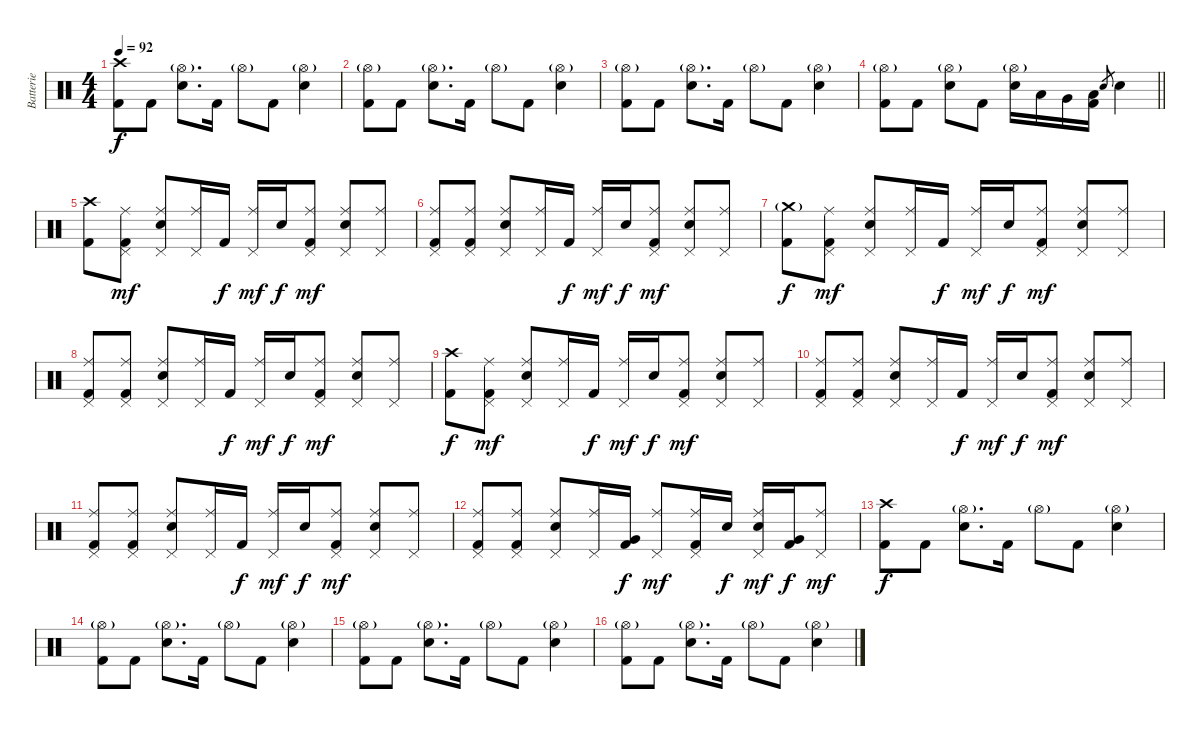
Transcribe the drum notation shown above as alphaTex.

\track ("Batterie" "Batterie") {instrument percussion}
\staff {score}
\articulation defaults
\ts (4 4)
\tempo 92
\clef neutral
\ks c
("Crash high (hit)" "Kick (hit) 2").8{dy f} "Kick (hit) 2".8 ("Hi-Hat (open)"{g} "Electric Snare (hit)").8{d} "Kick (hit) 2".16 "Hi-Hat (open)"{g}.8 "Kick (hit) 2".8 ("Hi-Hat (open)"{g} "Electric Snare (hit)").4 |
("Hi-Hat (open)"{g} "Kick (hit) 2").8 "Kick (hit) 2".8 ("Hi-Hat (open)"{g} "Electric Snare (hit)").8{d} "Kick (hit) 2".16 "Hi-Hat (open)"{g}.8 "Kick (hit) 2".8 ("Hi-Hat (open)"{g} "Electric Snare (hit)").4 |
("Hi-Hat (open)"{g} "Kick (hit) 2").8 "Kick (hit) 2".8 ("Hi-Hat (open)"{g} "Electric Snare (hit)").8{d} "Kick (hit) 2".16 "Hi-Hat (open)"{g}.8 "Kick (hit) 2".8 ("Hi-Hat (open)"{g} "Electric Snare (hit)").4 |
\barLineRight lightlight
("Hi-Hat (open)"{g} "Kick (hit) 2").8 "Kick (hit) 2".8 ("Hi-Hat (open)"{g} "Electric Snare (hit)").8 "Kick (hit) 2".8 ("Hi-Hat (open)"{g} "Electric Snare (hit)").16 "Low Tom (hit)".16 "Very Low Tom (hit)".16 ("Low Floor Tom (hit)" "Kick (hit) 2").16 "Electric Snare (hit)".8{gr} "Electric Snare (hit)".4 |
("Crash high (hit)" "Kick (hit) 2").8 ("Ride (middle)" "Pedal Hi-Hat (hit)" "Kick (hit) 2").8{dy mf} ("Ride (middle)" "Pedal Hi-Hat (hit)" "Electric Snare (hit)").8 ("Ride (middle)" "Pedal Hi-Hat (hit)").16 "Kick (hit) 2".16{dy f} ("Ride (middle)" "Pedal Hi-Hat (hit)").16{dy mf} "Electric Snare (hit)".16{dy f} ("Ride (middle)" "Pedal Hi-Hat (hit)" "Kick (hit) 2").8{dy mf} ("Ride (middle)" "Pedal Hi-Hat (hit)" "Electric Snare (hit)").8 ("Ride (middle)" "Pedal Hi-Hat (hit)").8 |
("Ride (middle)" "Pedal Hi-Hat (hit)" "Kick (hit) 2").8 ("Ride (middle)" "Pedal Hi-Hat (hit)" "Kick (hit) 2").8 ("Ride (middle)" "Pedal Hi-Hat (hit)" "Electric Snare (hit)").8 ("Ride (middle)" "Pedal Hi-Hat (hit)").16 "Kick (hit) 2".16{dy f} ("Ride (middle)" "Pedal Hi-Hat (hit)").16{dy mf} "Electric Snare (hit)".16{dy f} ("Ride (middle)" "Pedal Hi-Hat (hit)" "Kick (hit) 2").8{dy mf} ("Ride (middle)" "Pedal Hi-Hat (hit)" "Electric Snare (hit)").8 ("Ride (middle)" "Pedal Hi-Hat (hit)").8 |
("Crash medium (hit)"{g} "Kick (hit) 2").8{dy f} ("Ride (middle)" "Pedal Hi-Hat (hit)" "Kick (hit) 2").8{dy mf} ("Ride (middle)" "Pedal Hi-Hat (hit)" "Electric Snare (hit)").8 ("Ride (middle)" "Pedal Hi-Hat (hit)").16 "Kick (hit) 2".16{dy f} ("Ride (middle)" "Pedal Hi-Hat (hit)").16{dy mf} "Electric Snare (hit)".16{dy f} ("Ride (middle)" "Pedal Hi-Hat (hit)" "Kick (hit) 2").8{dy mf} ("Ride (middle)" "Pedal Hi-Hat (hit)" "Electric Snare (hit)").8 ("Ride (middle)" "Pedal Hi-Hat (hit)").8 |
("Ride (middle)" "Pedal Hi-Hat (hit)" "Kick (hit) 2").8 ("Ride (middle)" "Pedal Hi-Hat (hit)" "Kick (hit) 2").8 ("Ride (middle)" "Pedal Hi-Hat (hit)" "Electric Snare (hit)").8 ("Ride (middle)" "Pedal Hi-Hat (hit)").16 "Kick (hit) 2".16{dy f} ("Ride (middle)" "Pedal Hi-Hat (hit)").16{dy mf} "Electric Snare (hit)".16{dy f} ("Ride (middle)" "Pedal Hi-Hat (hit)" "Kick (hit) 2").8{dy mf} ("Ride (middle)" "Pedal Hi-Hat (hit)" "Electric Snare (hit)").8 ("Ride (middle)" "Pedal Hi-Hat (hit)").8 |
("Crash high (hit)" "Kick (hit) 2").8{dy f} ("Ride (middle)" "Pedal Hi-Hat (hit)" "Kick (hit) 2").8{dy mf} ("Ride (middle)" "Pedal Hi-Hat (hit)" "Electric Snare (hit)").8 ("Ride (middle)" "Pedal Hi-Hat (hit)").16 "Kick (hit) 2".16{dy f} ("Ride (middle)" "Pedal Hi-Hat (hit)").16{dy mf} "Electric Snare (hit)".16{dy f} ("Ride (middle)" "Pedal Hi-Hat (hit)" "Kick (hit) 2").8{dy mf} ("Ride (middle)" "Pedal Hi-Hat (hit)" "Electric Snare (hit)").8 ("Ride (middle)" "Pedal Hi-Hat (hit)").8 |
("Ride (middle)" "Pedal Hi-Hat (hit)" "Kick (hit) 2").8 ("Ride (middle)" "Pedal Hi-Hat (hit)" "Kick (hit) 2").8 ("Ride (middle)" "Pedal Hi-Hat (hit)" "Electric Snare (hit)").8 ("Ride (middle)" "Pedal Hi-Hat (hit)").16 "Kick (hit) 2".16{dy f} ("Ride (middle)" "Pedal Hi-Hat (hit)").16{dy mf} "Electric Snare (hit)".16{dy f} ("Ride (middle)" "Pedal Hi-Hat (hit)" "Kick (hit) 2").8{dy mf} ("Ride (middle)" "Pedal Hi-Hat (hit)" "Electric Snare (hit)").8 ("Ride (middle)" "Pedal Hi-Hat (hit)").8 |
("Ride (middle)" "Pedal Hi-Hat (hit)" "Kick (hit) 2").8 ("Ride (middle)" "Pedal Hi-Hat (hit)" "Kick (hit) 2").8 ("Ride (middle)" "Pedal Hi-Hat (hit)" "Electric Snare (hit)").8 ("Ride (middle)" "Pedal Hi-Hat (hit)").16 "Kick (hit) 2".16{dy f} ("Ride (middle)" "Pedal Hi-Hat (hit)").16{dy mf} "Electric Snare (hit)".16{dy f} ("Ride (middle)" "Pedal Hi-Hat (hit)" "Kick (hit) 2").8{dy mf} ("Ride (middle)" "Pedal Hi-Hat (hit)" "Electric Snare (hit)").8 ("Ride (middle)" "Pedal Hi-Hat (hit)").8 |
("Ride (middle)" "Pedal Hi-Hat (hit)" "Kick (hit) 2").8 ("Ride (middle)" "Pedal Hi-Hat (hit)" "Kick (hit) 2").8 ("Ride (middle)" "Pedal Hi-Hat (hit)" "Electric Snare (hit)").8 ("Ride (middle)" "Pedal Hi-Hat (hit)").16 ("Very Low Tom (hit)" "Kick (hit) 2").16{dy f} ("Ride (middle)" "Pedal Hi-Hat (hit)").8{dy mf} ("Ride (middle)" "Pedal Hi-Hat (hit)" "Kick (hit) 2").16 "Electric Snare (hit)".16{dy f} ("Ride (middle)" "Pedal Hi-Hat (hit)" "Electric Snare (hit)").16{dy mf} ("Very Low Tom (hit)" "Kick (hit) 2").16{dy f} ("Ride (middle)" "Pedal Hi-Hat (hit)").8{dy mf} |
("Crash high (hit)" "Kick (hit) 2").8{dy f} "Kick (hit) 2".8 ("Hi-Hat (open)"{g} "Electric Snare (hit)").8{d} "Kick (hit) 2".16 "Hi-Hat (open)"{g}.8 "Kick (hit) 2".8 ("Hi-Hat (open)"{g} "Electric Snare (hit)").4 |
("Hi-Hat (open)"{g} "Kick (hit) 2").8 "Kick (hit) 2".8 ("Hi-Hat (open)"{g} "Electric Snare (hit)").8{d} "Kick (hit) 2".16 "Hi-Hat (open)"{g}.8 "Kick (hit) 2".8 ("Hi-Hat (open)"{g} "Electric Snare (hit)").4 |
("Hi-Hat (open)"{g} "Kick (hit) 2").8 "Kick (hit) 2".8 ("Hi-Hat (open)"{g} "Electric Snare (hit)").8{d} "Kick (hit) 2".16 "Hi-Hat (open)"{g}.8 "Kick (hit) 2".8 ("Hi-Hat (open)"{g} "Electric Snare (hit)").4 |
("Hi-Hat (open)"{g} "Kick (hit) 2").8 "Kick (hit) 2".8 ("Hi-Hat (open)"{g} "Electric Snare (hit)").8{d} "Kick (hit) 2".16 "Hi-Hat (open)"{g}.8 "Kick (hit) 2".8 ("Hi-Hat (open)"{g} "Electric Snare (hit)").4
